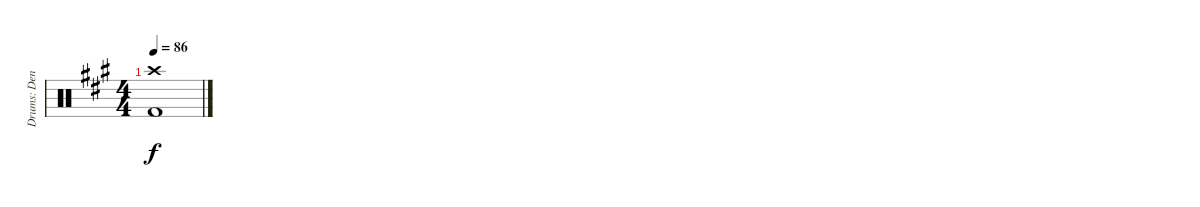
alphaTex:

\track ("Drums: Denny" "Drums: Den") {instrument percussion}
\staff {score}
\articulation defaults
\ts (4 4)
\tempo 86
\clef neutral
\ks a
("Crash high (hit)"{t} "Kick (hit) 2"{t}).1{dy f}
